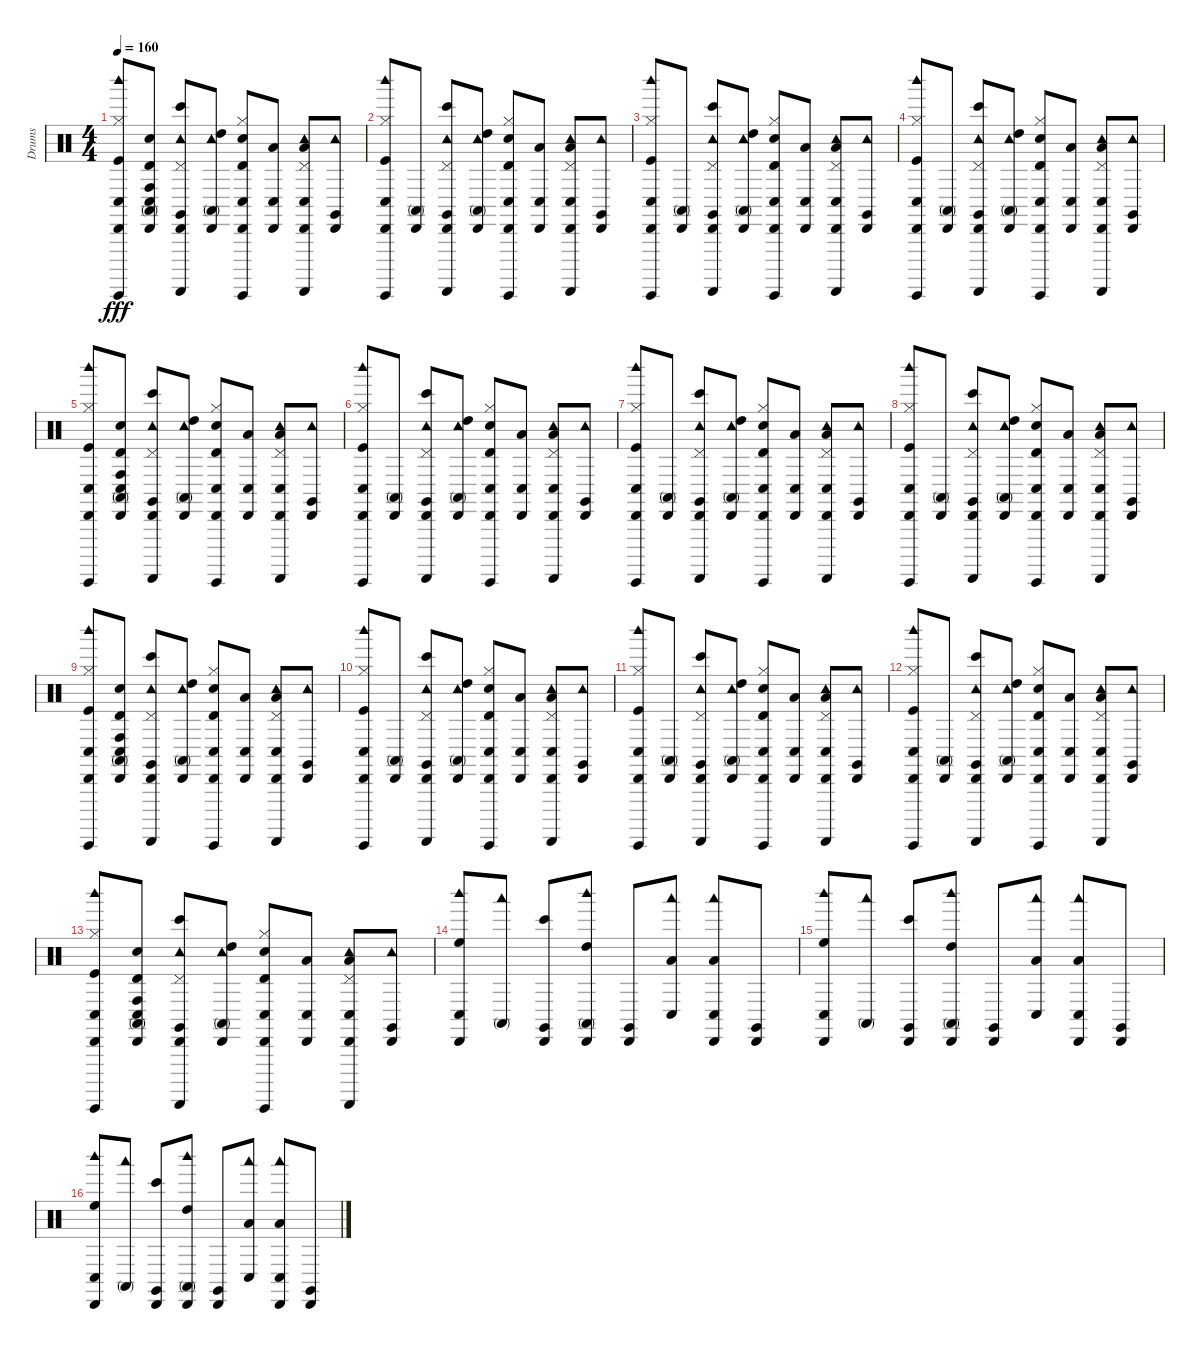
\track ("Drums" "Drums") {instrument percussion}
\staff {score}
\articulation defaults
\ts (4 4)
\tempo 160
\clef neutral
\ks c
("Kick (hit)" "Cabasa (hit)" "Hi-Hat (closed)" "Guiro (hit)" "Woodblock high (hit)" "Conga low (hit)").8{dy fff} ("Cabasa (hit)" "Conga high (mute)" "Electric Snare (hit)" "Timbale high (hit)" "Conga low (hit)" "Conga high (hit)").8 ("Tambourine (hit)" "Cabasa (hit)" "Pedal Hi-Hat (hit)" "Guiro (scrap-return)" "Claves (hit)" "Bongo High (hit)").8 ("Tambourine (hit)" "Cabasa (hit)" "High Tom (hit)" "Conga high (mute)").8 ("Electric Snare (hit)" "Cabasa (hit)" "Hi-Hat (closed)" "Guiro (hit)" "Timbale high (hit)" "Conga low (hit)").8 ("Cabasa (hit)" "Conga low (hit)" "Low Tom (hit)").8 ("Tambourine (hit)" "Cabasa (hit)" "Pedal Hi-Hat (hit)" "Guiro (scrap-return)" "Conga low (hit)" "Low Tom (hit)").8 ("Tambourine (hit)" "Cabasa (hit)" "Claves (hit)").8 |
("Kick (hit)" "Cabasa (hit)" "Hi-Hat (closed)" "Guiro (hit)" "Woodblock high (hit)" "Conga low (hit)").8 ("Cabasa (hit)" "Conga high (mute)").8 ("Tambourine (hit)" "Cabasa (hit)" "Pedal Hi-Hat (hit)" "Guiro (scrap-return)" "Claves (hit)" "Bongo High (hit)").8 ("Tambourine (hit)" "Cabasa (hit)" "High Tom (hit)" "Conga high (mute)").8 ("Electric Snare (hit)" "Cabasa (hit)" "Hi-Hat (closed)" "Guiro (hit)" "Timbale high (hit)" "Conga low (hit)").8 ("Cabasa (hit)" "Conga low (hit)" "Low Tom (hit)").8 ("Tambourine (hit)" "Cabasa (hit)" "Pedal Hi-Hat (hit)" "Guiro (scrap-return)" "Conga low (hit)" "Low Tom (hit)").8 ("Tambourine (hit)" "Cabasa (hit)" "Claves (hit)").8 |
("Kick (hit)" "Cabasa (hit)" "Hi-Hat (closed)" "Guiro (hit)" "Woodblock high (hit)" "Conga low (hit)").8 ("Cabasa (hit)" "Conga high (mute)").8 ("Tambourine (hit)" "Cabasa (hit)" "Pedal Hi-Hat (hit)" "Guiro (scrap-return)" "Claves (hit)" "Bongo High (hit)").8 ("Tambourine (hit)" "Cabasa (hit)" "High Tom (hit)" "Conga high (mute)").8 ("Electric Snare (hit)" "Cabasa (hit)" "Hi-Hat (closed)" "Guiro (hit)" "Timbale high (hit)" "Conga low (hit)").8 ("Cabasa (hit)" "Conga low (hit)" "Low Tom (hit)").8 ("Tambourine (hit)" "Cabasa (hit)" "Pedal Hi-Hat (hit)" "Guiro (scrap-return)" "Conga low (hit)" "Low Tom (hit)").8 ("Tambourine (hit)" "Cabasa (hit)" "Claves (hit)").8 |
("Kick (hit)" "Cabasa (hit)" "Hi-Hat (closed)" "Guiro (hit)" "Woodblock high (hit)" "Conga low (hit)").8 ("Cabasa (hit)" "Conga high (mute)").8 ("Tambourine (hit)" "Cabasa (hit)" "Pedal Hi-Hat (hit)" "Guiro (scrap-return)" "Claves (hit)" "Bongo High (hit)").8 ("Tambourine (hit)" "Cabasa (hit)" "High Tom (hit)" "Conga high (mute)").8 ("Electric Snare (hit)" "Cabasa (hit)" "Hi-Hat (closed)" "Guiro (hit)" "Timbale high (hit)" "Conga low (hit)").8 ("Cabasa (hit)" "Conga low (hit)" "Low Tom (hit)").8 ("Tambourine (hit)" "Cabasa (hit)" "Pedal Hi-Hat (hit)" "Guiro (scrap-return)" "Conga low (hit)" "Low Tom (hit)").8 ("Tambourine (hit)" "Cabasa (hit)" "Claves (hit)").8 |
("Kick (hit)" "Cabasa (hit)" "Hi-Hat (closed)" "Guiro (hit)" "Woodblock high (hit)" "Conga low (hit)").8 ("Cabasa (hit)" "Conga high (mute)" "Electric Snare (hit)" "Timbale high (hit)" "Conga low (hit)" "Conga high (hit)").8 ("Tambourine (hit)" "Cabasa (hit)" "Pedal Hi-Hat (hit)" "Guiro (scrap-return)" "Claves (hit)" "Bongo High (hit)").8 ("Tambourine (hit)" "Cabasa (hit)" "High Tom (hit)" "Conga high (mute)").8 ("Electric Snare (hit)" "Cabasa (hit)" "Hi-Hat (closed)" "Guiro (hit)" "Timbale high (hit)" "Conga low (hit)").8 ("Cabasa (hit)" "Conga low (hit)" "Low Tom (hit)").8 ("Tambourine (hit)" "Cabasa (hit)" "Pedal Hi-Hat (hit)" "Guiro (scrap-return)" "Conga low (hit)" "Low Tom (hit)").8 ("Tambourine (hit)" "Cabasa (hit)" "Claves (hit)").8 |
("Kick (hit)" "Cabasa (hit)" "Hi-Hat (closed)" "Guiro (hit)" "Woodblock high (hit)" "Conga low (hit)").8 ("Cabasa (hit)" "Conga high (mute)").8 ("Tambourine (hit)" "Cabasa (hit)" "Pedal Hi-Hat (hit)" "Guiro (scrap-return)" "Claves (hit)" "Bongo High (hit)").8 ("Tambourine (hit)" "Cabasa (hit)" "High Tom (hit)" "Conga high (mute)").8 ("Electric Snare (hit)" "Cabasa (hit)" "Hi-Hat (closed)" "Guiro (hit)" "Timbale high (hit)" "Conga low (hit)").8 ("Cabasa (hit)" "Conga low (hit)" "Low Tom (hit)").8 ("Tambourine (hit)" "Cabasa (hit)" "Pedal Hi-Hat (hit)" "Guiro (scrap-return)" "Conga low (hit)" "Low Tom (hit)").8 ("Tambourine (hit)" "Cabasa (hit)" "Claves (hit)").8 |
("Kick (hit)" "Cabasa (hit)" "Hi-Hat (closed)" "Guiro (hit)" "Woodblock high (hit)" "Conga low (hit)").8 ("Cabasa (hit)" "Conga high (mute)").8 ("Tambourine (hit)" "Cabasa (hit)" "Pedal Hi-Hat (hit)" "Guiro (scrap-return)" "Claves (hit)" "Bongo High (hit)").8 ("Tambourine (hit)" "Cabasa (hit)" "High Tom (hit)" "Conga high (mute)").8 ("Electric Snare (hit)" "Cabasa (hit)" "Hi-Hat (closed)" "Guiro (hit)" "Timbale high (hit)" "Conga low (hit)").8 ("Cabasa (hit)" "Conga low (hit)" "Low Tom (hit)").8 ("Tambourine (hit)" "Cabasa (hit)" "Pedal Hi-Hat (hit)" "Guiro (scrap-return)" "Conga low (hit)" "Low Tom (hit)").8 ("Tambourine (hit)" "Cabasa (hit)" "Claves (hit)").8 |
("Kick (hit)" "Cabasa (hit)" "Hi-Hat (closed)" "Guiro (hit)" "Woodblock high (hit)" "Conga low (hit)").8 ("Cabasa (hit)" "Conga high (mute)").8 ("Tambourine (hit)" "Cabasa (hit)" "Pedal Hi-Hat (hit)" "Guiro (scrap-return)" "Claves (hit)" "Bongo High (hit)").8 ("Tambourine (hit)" "Cabasa (hit)" "High Tom (hit)" "Conga high (mute)").8 ("Electric Snare (hit)" "Cabasa (hit)" "Hi-Hat (closed)" "Guiro (hit)" "Timbale high (hit)" "Conga low (hit)").8 ("Cabasa (hit)" "Conga low (hit)" "Low Tom (hit)").8 ("Tambourine (hit)" "Cabasa (hit)" "Pedal Hi-Hat (hit)" "Guiro (scrap-return)" "Conga low (hit)" "Low Tom (hit)").8 ("Tambourine (hit)" "Cabasa (hit)" "Claves (hit)").8 |
("Kick (hit)" "Cabasa (hit)" "Hi-Hat (closed)" "Guiro (hit)" "Woodblock high (hit)" "Conga low (hit)").8 ("Cabasa (hit)" "Conga high (mute)" "Electric Snare (hit)" "Timbale high (hit)" "Conga low (hit)" "Conga high (hit)").8 ("Tambourine (hit)" "Cabasa (hit)" "Pedal Hi-Hat (hit)" "Guiro (scrap-return)" "Claves (hit)" "Bongo High (hit)").8 ("Tambourine (hit)" "Cabasa (hit)" "High Tom (hit)" "Conga high (mute)").8 ("Electric Snare (hit)" "Cabasa (hit)" "Hi-Hat (closed)" "Guiro (hit)" "Timbale high (hit)" "Conga low (hit)").8 ("Cabasa (hit)" "Conga low (hit)" "Low Tom (hit)").8 ("Tambourine (hit)" "Cabasa (hit)" "Pedal Hi-Hat (hit)" "Guiro (scrap-return)" "Conga low (hit)" "Low Tom (hit)").8 ("Tambourine (hit)" "Cabasa (hit)" "Claves (hit)").8 |
("Kick (hit)" "Cabasa (hit)" "Hi-Hat (closed)" "Guiro (hit)" "Woodblock high (hit)" "Conga low (hit)").8 ("Cabasa (hit)" "Conga high (mute)").8 ("Tambourine (hit)" "Cabasa (hit)" "Pedal Hi-Hat (hit)" "Guiro (scrap-return)" "Claves (hit)" "Bongo High (hit)").8 ("Tambourine (hit)" "Cabasa (hit)" "High Tom (hit)" "Conga high (mute)").8 ("Electric Snare (hit)" "Cabasa (hit)" "Hi-Hat (closed)" "Guiro (hit)" "Timbale high (hit)" "Conga low (hit)").8 ("Cabasa (hit)" "Conga low (hit)" "Low Tom (hit)").8 ("Tambourine (hit)" "Cabasa (hit)" "Pedal Hi-Hat (hit)" "Guiro (scrap-return)" "Conga low (hit)" "Low Tom (hit)").8 ("Tambourine (hit)" "Cabasa (hit)" "Claves (hit)").8 |
("Kick (hit)" "Cabasa (hit)" "Hi-Hat (closed)" "Guiro (hit)" "Woodblock high (hit)" "Conga low (hit)").8 ("Cabasa (hit)" "Conga high (mute)").8 ("Tambourine (hit)" "Cabasa (hit)" "Pedal Hi-Hat (hit)" "Guiro (scrap-return)" "Claves (hit)" "Bongo High (hit)").8 ("Tambourine (hit)" "Cabasa (hit)" "High Tom (hit)" "Conga high (mute)").8 ("Electric Snare (hit)" "Cabasa (hit)" "Hi-Hat (closed)" "Guiro (hit)" "Timbale high (hit)" "Conga low (hit)").8 ("Cabasa (hit)" "Conga low (hit)" "Low Tom (hit)").8 ("Tambourine (hit)" "Cabasa (hit)" "Pedal Hi-Hat (hit)" "Guiro (scrap-return)" "Conga low (hit)" "Low Tom (hit)").8 ("Tambourine (hit)" "Cabasa (hit)" "Claves (hit)").8 |
("Kick (hit)" "Cabasa (hit)" "Hi-Hat (closed)" "Guiro (hit)" "Woodblock high (hit)" "Conga low (hit)").8 ("Cabasa (hit)" "Conga high (mute)").8 ("Tambourine (hit)" "Cabasa (hit)" "Pedal Hi-Hat (hit)" "Guiro (scrap-return)" "Claves (hit)" "Bongo High (hit)").8 ("Tambourine (hit)" "Cabasa (hit)" "High Tom (hit)" "Conga high (mute)").8 ("Electric Snare (hit)" "Cabasa (hit)" "Hi-Hat (closed)" "Guiro (hit)" "Timbale high (hit)" "Conga low (hit)").8 ("Cabasa (hit)" "Conga low (hit)" "Low Tom (hit)").8 ("Tambourine (hit)" "Cabasa (hit)" "Pedal Hi-Hat (hit)" "Guiro (scrap-return)" "Conga low (hit)" "Low Tom (hit)").8 ("Tambourine (hit)" "Cabasa (hit)" "Claves (hit)").8 |
("Kick (hit)" "Cabasa (hit)" "Hi-Hat (closed)" "Guiro (hit)" "Woodblock high (hit)" "Conga low (hit)").8 ("Cabasa (hit)" "Conga high (mute)" "Electric Snare (hit)" "Timbale high (hit)" "Conga low (hit)" "Conga high (hit)").8 ("Tambourine (hit)" "Cabasa (hit)" "Pedal Hi-Hat (hit)" "Guiro (scrap-return)" "Claves (hit)" "Bongo High (hit)").8 ("Tambourine (hit)" "Cabasa (hit)" "High Tom (hit)" "Conga high (mute)").8 ("Electric Snare (hit)" "Cabasa (hit)" "Hi-Hat (closed)" "Guiro (hit)" "Timbale high (hit)" "Conga low (hit)").8 ("Cabasa (hit)" "Conga low (hit)" "Low Tom (hit)").8 ("Tambourine (hit)" "Cabasa (hit)" "Pedal Hi-Hat (hit)" "Guiro (scrap-return)" "Conga low (hit)" "Low Tom (hit)").8 ("Tambourine (hit)" "Cabasa (hit)" "Claves (hit)").8 |
("Woodblock high (hit)" "Conga low (hit)" "High Floor Tom (hit)" "Cabasa (hit)").8 ("Woodblock low (hit)" "Conga high (mute)").8 ("Claves (hit)" "Bongo High (hit)" "Cabasa (hit)").8 ("Woodblock high (hit)" "High Tom (hit)" "Conga high (mute)" "Cabasa (hit)").8 ("Claves (hit)" "Cabasa (hit)").8 ("Conga low (hit)" "Low Tom (hit)" "Woodblock low (hit)").8 ("Conga low (hit)" "Low Tom (hit)" "Cabasa (hit)" "Woodblock low (hit)").8 ("Cabasa (hit)" "Claves (hit)").8 |
("Woodblock high (hit)" "Conga low (hit)" "High Floor Tom (hit)" "Cabasa (hit)").8 ("Woodblock low (hit)" "Conga high (mute)").8 ("Claves (hit)" "Bongo High (hit)" "Cabasa (hit)").8 ("Woodblock high (hit)" "High Tom (hit)" "Conga high (mute)" "Cabasa (hit)").8 ("Claves (hit)" "Cabasa (hit)").8 ("Conga low (hit)" "Low Tom (hit)" "Woodblock low (hit)").8 ("Conga low (hit)" "Low Tom (hit)" "Cabasa (hit)" "Woodblock low (hit)").8 ("Cabasa (hit)" "Claves (hit)").8 |
("Woodblock high (hit)" "Conga low (hit)" "High Floor Tom (hit)" "Cabasa (hit)").8 ("Woodblock low (hit)" "Conga high (mute)").8 ("Claves (hit)" "Bongo High (hit)" "Cabasa (hit)").8 ("Woodblock high (hit)" "High Tom (hit)" "Conga high (mute)" "Cabasa (hit)").8 ("Claves (hit)" "Cabasa (hit)").8 ("Conga low (hit)" "Low Tom (hit)" "Woodblock low (hit)").8 ("Conga low (hit)" "Low Tom (hit)" "Cabasa (hit)" "Woodblock low (hit)").8 ("Cabasa (hit)" "Claves (hit)").8
